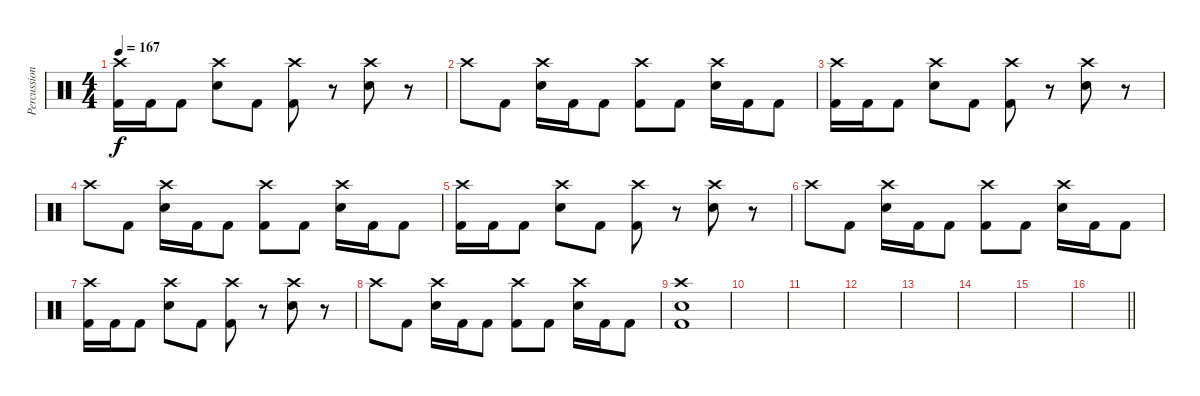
\track ("Percussion" "Percussion") {instrument percussion}
\staff {score}
\articulation defaults
\ts (4 4)
\tempo 167
\clef neutral
\ks c
("Crash high (hit)" "Kick (hit) 2").16{dy f} "Kick (hit) 2".16 "Kick (hit) 2".8 ("Crash high (hit)" "Electric Snare (hit)").8 "Kick (hit) 2".8 ("Crash high (hit)" "Kick (hit) 2").8 r.8 ("Crash high (hit)" "Electric Snare (hit)").8 r.8 |
"Crash high (hit)".8 "Kick (hit) 2".8 ("Crash high (hit)" "Electric Snare (hit)").16 "Kick (hit) 2".16 "Kick (hit) 2".8 ("Crash high (hit)" "Kick (hit) 2").8 "Kick (hit) 2".8 ("Crash high (hit)" "Electric Snare (hit)").16 "Kick (hit) 2".16 "Kick (hit) 2".8 |
("Crash high (hit)" "Kick (hit) 2").16 "Kick (hit) 2".16 "Kick (hit) 2".8 ("Crash high (hit)" "Electric Snare (hit)").8 "Kick (hit) 2".8 ("Crash high (hit)" "Kick (hit) 2").8 r.8 ("Crash high (hit)" "Electric Snare (hit)").8 r.8 |
"Crash high (hit)".8 "Kick (hit) 2".8 ("Crash high (hit)" "Electric Snare (hit)").16 "Kick (hit) 2".16 "Kick (hit) 2".8 ("Crash high (hit)" "Kick (hit) 2").8 "Kick (hit) 2".8 ("Crash high (hit)" "Electric Snare (hit)").16 "Kick (hit) 2".16 "Kick (hit) 2".8 |
("Crash high (hit)" "Kick (hit) 2").16 "Kick (hit) 2".16 "Kick (hit) 2".8 ("Crash high (hit)" "Electric Snare (hit)").8 "Kick (hit) 2".8 ("Crash high (hit)" "Kick (hit) 2").8 r.8 ("Crash high (hit)" "Electric Snare (hit)").8 r.8 |
"Crash high (hit)".8 "Kick (hit) 2".8 ("Crash high (hit)" "Electric Snare (hit)").16 "Kick (hit) 2".16 "Kick (hit) 2".8 ("Crash high (hit)" "Kick (hit) 2").8 "Kick (hit) 2".8 ("Crash high (hit)" "Electric Snare (hit)").16 "Kick (hit) 2".16 "Kick (hit) 2".8 |
("Crash high (hit)" "Kick (hit) 2").16 "Kick (hit) 2".16 "Kick (hit) 2".8 ("Crash high (hit)" "Electric Snare (hit)").8 "Kick (hit) 2".8 ("Crash high (hit)" "Kick (hit) 2").8 r.8 ("Crash high (hit)" "Electric Snare (hit)").8 r.8 |
"Crash high (hit)".8 "Kick (hit) 2".8 ("Crash high (hit)" "Electric Snare (hit)").16 "Kick (hit) 2".16 "Kick (hit) 2".8 ("Crash high (hit)" "Kick (hit) 2").8 "Kick (hit) 2".8 ("Crash high (hit)" "Electric Snare (hit)").16 "Kick (hit) 2".16 "Kick (hit) 2".8 |
("Crash high (hit)" "Electric Snare (hit)" "Kick (hit) 2").1 |
|
|
|
|
|
|
\barLineRight lightlight
